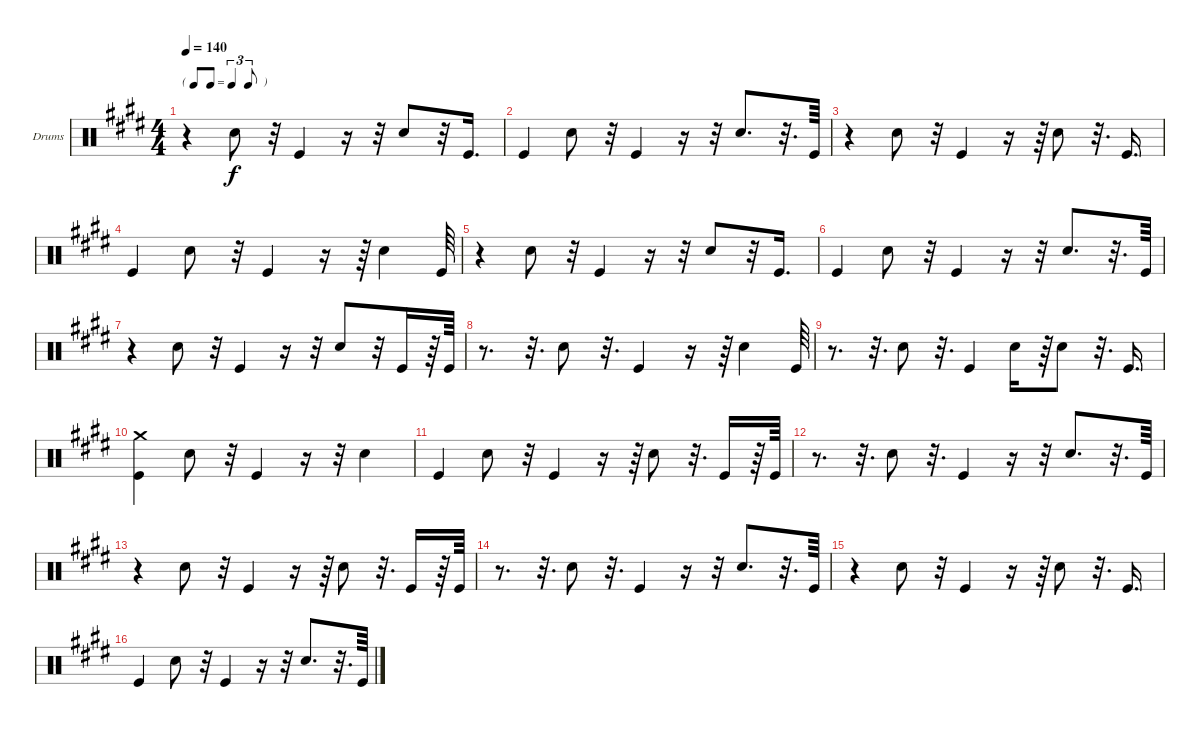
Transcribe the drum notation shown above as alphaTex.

\bracketExtendMode groupsimilarinstruments
\firstSystemTrackNameOrientation horizontal
\otherSystemsTrackNameOrientation horizontal
\track ("Drumkit" "Drums") {instrument percussion}
\staff {score}
\articulation defaults
\ts (4 4)
\tf triplet8th
\tempo 140
\clef neutral
\ks e
r.4{dy f} "Snare (hit) 2".8 r.32 "Kick (hit)".4 r.16 r.32 "Snare (hit) 2".8 r.32 "Kick (hit)".16{d} |
"Kick (hit)".4 "Snare (hit) 2".8 r.32 "Kick (hit)".4 r.16 r.32 "Snare (hit) 2".8{d} r.32{d} "Kick (hit)".64 |
r.4 "Snare (hit) 2".8 r.32 "Kick (hit)".4 r.16 r.64 "Snare (hit) 2".8 r.32{d} "Kick (hit)".16{d} |
"Kick (hit)".4 "Snare (hit) 2".8 r.32 "Kick (hit)".4 r.16 r.64 "Snare (hit) 2".4 "Kick (hit)".64 |
r.4 "Snare (hit) 2".8 r.32 "Kick (hit)".4 r.16 r.32 "Snare (hit) 2".8 r.32 "Kick (hit)".16{d} |
"Kick (hit)".4 "Snare (hit) 2".8 r.32 "Kick (hit)".4 r.16 r.32 "Snare (hit) 2".8{d} r.32{d} "Kick (hit)".64 |
r.4 "Snare (hit) 2".8 r.32 "Kick (hit)".4 r.16 r.32 "Snare (hit) 2".8 r.32 "Kick (hit)".16 r.64 "Kick (hit)".64 |
r.8{d} r.32{d} "Snare (hit) 2".8 r.32{d} "Kick (hit)".4 r.16 r.64 "Snare (hit) 2".4 "Kick (hit)".64 |
r.8{d} r.32{d} "Snare (hit) 2".8 r.32{d} "Kick (hit)".4 "Snare (hit) 2".16 r.64 "Snare (hit) 2".8 r.32{d} "Kick (hit)".16{d} |
("Kick (hit)" "Crash medium (hit)").4 "Snare (hit) 2".8 r.32 "Kick (hit)".4 r.16 r.32 "Snare (hit) 2".4 |
"Kick (hit)".4 "Snare (hit) 2".8 r.32 "Kick (hit)".4 r.16 r.64 "Snare (hit) 2".8 r.32{d} "Kick (hit)".16 r.64 "Kick (hit)".64 |
r.8{d} r.32{d} "Snare (hit) 2".8 r.32{d} "Kick (hit)".4 r.16 r.32 "Snare (hit) 2".8{d} r.32{d} "Kick (hit)".64 |
r.4 "Snare (hit) 2".8 r.32 "Kick (hit)".4 r.16 r.64 "Snare (hit) 2".8 r.32{d} "Kick (hit)".16 r.64 "Kick (hit)".64 |
r.8{d} r.32{d} "Snare (hit) 2".8 r.32{d} "Kick (hit)".4 r.16 r.32 "Snare (hit) 2".8{d} r.32{d} "Kick (hit)".64 |
r.4 "Snare (hit) 2".8 r.32 "Kick (hit)".4 r.16 r.64 "Snare (hit) 2".8 r.32{d} "Kick (hit)".16{d} |
"Kick (hit)".4 "Snare (hit) 2".8 r.32 "Kick (hit)".4 r.16 r.32 "Snare (hit) 2".8{d} r.32{d} "Kick (hit)".64
